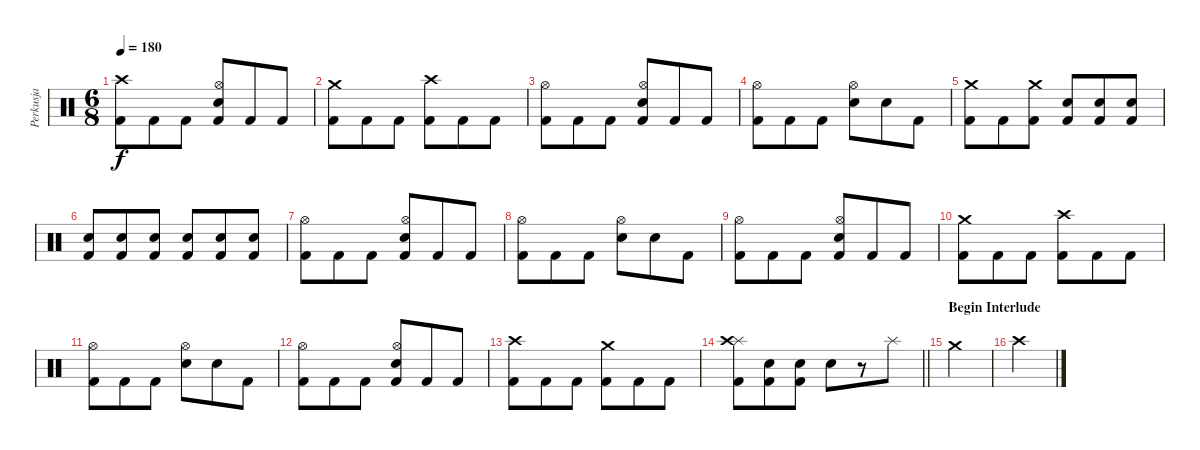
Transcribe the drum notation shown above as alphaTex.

\track ("Perkusja" "Perkusja") {instrument percussion}
\staff {score}
\articulation defaults
\ts (6 8)
\tempo 180
\clef neutral
\ks c
("Crash high (hit)" "Kick (hit) 2").8{dy f} "Kick (hit) 2".8 "Kick (hit) 2".8 ("Hi-Hat (open)" "Snare (hit) 2" "Kick (hit) 2").8 "Kick (hit) 2".8 "Kick (hit) 2".8 |
("Crash medium (hit)" "Kick (hit) 2").8 "Kick (hit) 2".8 "Kick (hit) 2".8 ("Crash high (hit)" "Kick (hit) 2").8 "Kick (hit) 2".8 "Kick (hit) 2".8 |
("Hi-Hat (open)" "Kick (hit) 2").8 "Kick (hit) 2".8 "Kick (hit) 2".8 ("Hi-Hat (open)" "Snare (hit) 2" "Kick (hit) 2").8 "Kick (hit) 2".8 "Kick (hit) 2".8 |
("Hi-Hat (open)" "Kick (hit) 2").8 "Kick (hit) 2".8 "Kick (hit) 2".8 ("Hi-Hat (open)" "Snare (hit) 2").8 "Snare (hit) 2".8 "Kick (hit) 2".8 |
("Crash medium (hit)" "Kick (hit) 2").8 "Kick (hit) 2".8 ("Crash medium (hit)" "Kick (hit) 2").8 ("Snare (hit) 2" "Kick (hit) 2").8 ("Snare (hit) 2" "Kick (hit) 2").8 ("Snare (hit) 2" "Kick (hit) 2").8 |
("Snare (hit) 2" "Kick (hit) 2").8 ("Snare (hit) 2" "Kick (hit) 2").8 ("Snare (hit) 2" "Kick (hit) 2").8 ("Snare (hit) 2" "Kick (hit) 2").8 ("Snare (hit) 2" "Kick (hit) 2").8 ("Snare (hit) 2" "Kick (hit) 2").8 |
("Hi-Hat (open)" "Kick (hit) 2").8 "Kick (hit) 2".8 "Kick (hit) 2".8 ("Hi-Hat (open)" "Snare (hit) 2" "Kick (hit) 2").8 "Kick (hit) 2".8 "Kick (hit) 2".8 |
("Hi-Hat (open)" "Kick (hit) 2").8 "Kick (hit) 2".8 "Kick (hit) 2".8 ("Hi-Hat (open)" "Snare (hit) 2").8 "Snare (hit) 2".8 "Kick (hit) 2".8 |
("Hi-Hat (open)" "Kick (hit) 2").8 "Kick (hit) 2".8 "Kick (hit) 2".8 ("Hi-Hat (open)" "Snare (hit) 2" "Kick (hit) 2").8 "Kick (hit) 2".8 "Kick (hit) 2".8 |
("Crash medium (hit)" "Kick (hit) 2").8 "Kick (hit) 2".8 "Kick (hit) 2".8 ("Crash high (hit)" "Kick (hit) 2").8 "Kick (hit) 2".8 "Kick (hit) 2".8 |
("Hi-Hat (open)" "Kick (hit) 2").8 "Kick (hit) 2".8 "Kick (hit) 2".8 ("Hi-Hat (open)" "Snare (hit) 2").8 "Snare (hit) 2".8 "Kick (hit) 2".8 |
("Hi-Hat (open)" "Kick (hit) 2").8 "Kick (hit) 2".8 "Kick (hit) 2".8 ("Hi-Hat (open)" "Snare (hit) 2" "Kick (hit) 2").8 "Kick (hit) 2".8 "Kick (hit) 2".8 |
("Crash high (hit)" "Kick (hit) 2").8 "Kick (hit) 2".8 "Kick (hit) 2".8 ("Crash medium (hit)" "Kick (hit) 2").8 "Kick (hit) 2".8 "Kick (hit) 2".8 |
\barLineRight lightlight
("Splash (hit)" "Crash high (hit)" "Kick (hit) 2").8 ("Snare (hit) 2" "Kick (hit) 2").8 ("Snare (hit) 2" "Kick (hit) 2").8 "Snare (hit) 2".8 r.8 "Splash (hit)".8 |
\section ("" "Begin Interlude")
"Crash medium (hit)".4 |
"Crash high (hit)".4
